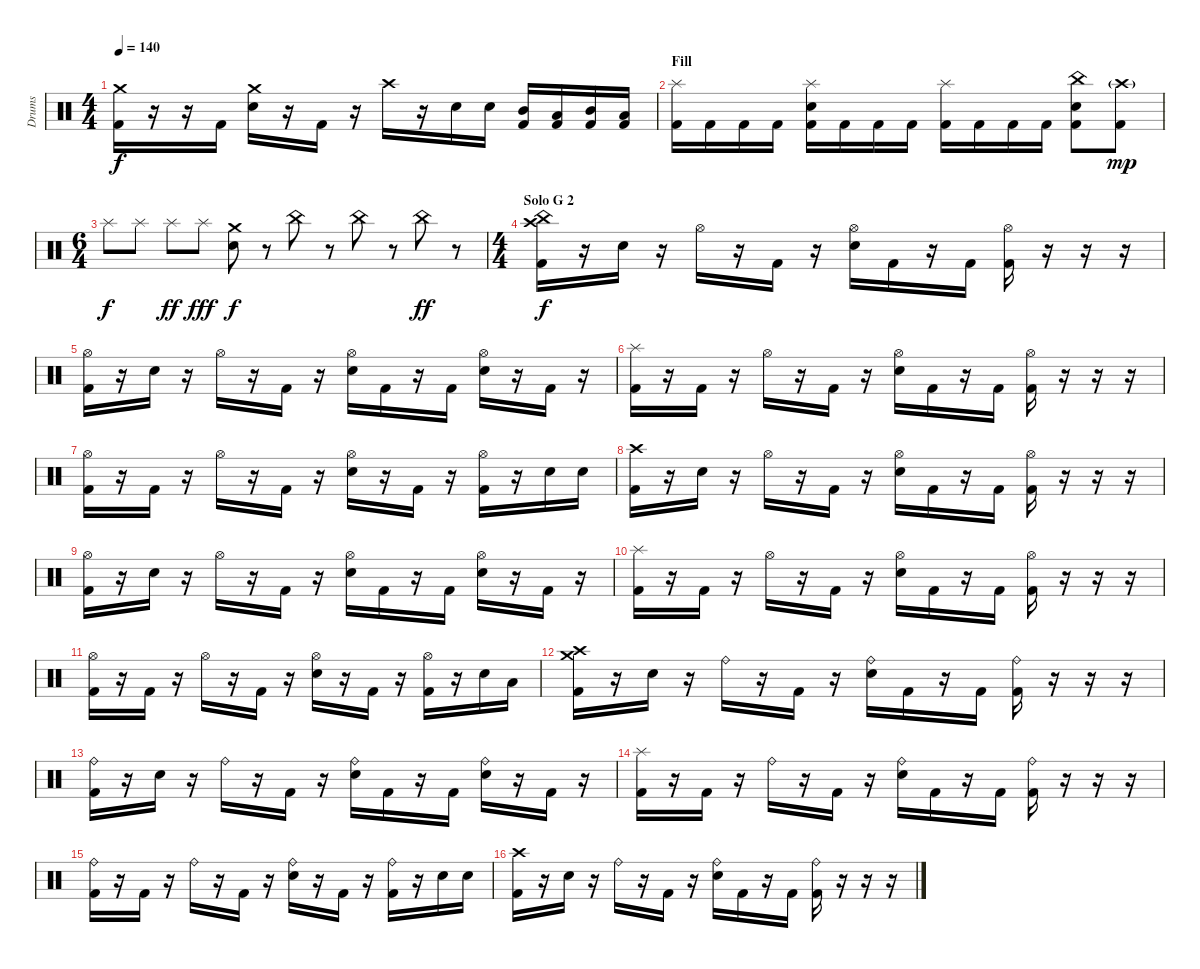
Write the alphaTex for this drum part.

\track ("Drums" "Drums") {instrument percussion}
\staff {score}
\articulation defaults
\ts (4 4)
\tempo 140
\clef neutral
\ks c
("Crash medium (hit)" "Kick (hit) 2").16{dy f} r.16 r.16 "Kick (hit) 2".16 ("Crash medium (hit)" "Electric Snare (hit)").16 r.16 "Kick (hit) 2".16 r.16 "Crash high (hit)".16 r.16 "Electric Snare (hit)".16 "Electric Snare (hit)".16 ("Mid Tom (hit)" "Kick (hit) 2").16 ("Low Tom (hit)" "Kick (hit) 2").16 ("Mid Tom (hit)" "Kick (hit) 2").16 ("Low Tom (hit)" "Kick (hit) 2").16 |
\section ("" "Fill")
("Splash (hit)" "Kick (hit) 2").16 "Kick (hit) 2".16 "Kick (hit) 2".16 "Kick (hit) 2".16 ("Splash (hit)" "Electric Snare (hit)" "Kick (hit) 2").16 "Kick (hit) 2".16 "Kick (hit) 2".16 "Kick (hit) 2".16 ("Splash (hit)" "Kick (hit) 2").16 "Kick (hit) 2".16 "Kick (hit) 2".16 "Kick (hit) 2".16 ("China (hit)" "Electric Snare (hit)" "Kick (hit) 2").8 ("Crash high (hit)"{g} "Kick (hit) 2").8{dy mp} |
\ts (6 4)
"Splash (hit)".8{dy f} "Splash (hit)".8 "Splash (hit)".8{dy ff} "Splash (hit)".8{dy fff} ("Crash medium (hit)" "Electric Snare (hit)").8{dy f} r.8 "China (hit)".8 r.8 "China (hit)".8 r.8 "China (hit)".8{dy ff} r.8 |
\ts (4 4)
\section ("" "Solo G 2")
("Crash high (hit)" "China (hit)" "Kick (hit) 2").16{dy f} r.16 "Electric Snare (hit)".16 r.16 "Hi-Hat (open)".16 r.16 "Kick (hit) 2".16 r.16 ("Hi-Hat (open)" "Electric Snare (hit)").16 "Kick (hit) 2".16 r.16 "Kick (hit) 2".16 ("Hi-Hat (open)" "Kick (hit) 2").16 r.16 r.16 r.16 |
("Hi-Hat (open)" "Kick (hit) 2").16 r.16 "Electric Snare (hit)".16 r.16 "Hi-Hat (open)".16 r.16 "Kick (hit) 2".16 r.16 ("Hi-Hat (open)" "Electric Snare (hit)").16 "Kick (hit) 2".16 r.16 "Kick (hit) 2".16 ("Hi-Hat (open)" "Electric Snare (hit)").16 r.16 "Kick (hit) 2".16 r.16 |
("Splash (hit)" "Kick (hit) 2").16 r.16 "Kick (hit) 2".16 r.16 "Hi-Hat (open)".16 r.16 "Kick (hit) 2".16 r.16 ("Hi-Hat (open)" "Electric Snare (hit)").16 "Kick (hit) 2".16 r.16 "Kick (hit) 2".16 ("Hi-Hat (open)" "Kick (hit) 2").16 r.16 r.16 r.16 |
("Hi-Hat (open)" "Kick (hit) 2").16 r.16 "Kick (hit) 2".16 r.16 "Hi-Hat (open)".16 r.16 "Kick (hit) 2".16 r.16 ("Hi-Hat (open)" "Electric Snare (hit)").16 r.16 "Kick (hit) 2".16 r.16 ("Hi-Hat (open)" "Kick (hit) 2").16 r.16 "Electric Snare (hit)".16 "Electric Snare (hit)".16 |
("Crash high (hit)" "Kick (hit) 2").16 r.16 "Electric Snare (hit)".16 r.16 "Hi-Hat (open)".16 r.16 "Kick (hit) 2".16 r.16 ("Hi-Hat (open)" "Electric Snare (hit)").16 "Kick (hit) 2".16 r.16 "Kick (hit) 2".16 ("Hi-Hat (open)" "Kick (hit) 2").16 r.16 r.16 r.16 |
("Hi-Hat (open)" "Kick (hit) 2").16 r.16 "Electric Snare (hit)".16 r.16 "Hi-Hat (open)".16 r.16 "Kick (hit) 2".16 r.16 ("Hi-Hat (open)" "Electric Snare (hit)").16 "Kick (hit) 2".16 r.16 "Kick (hit) 2".16 ("Hi-Hat (open)" "Electric Snare (hit)").16 r.16 "Kick (hit) 2".16 r.16 |
("Splash (hit)" "Kick (hit) 2").16 r.16 "Kick (hit) 2".16 r.16 "Hi-Hat (open)".16 r.16 "Kick (hit) 2".16 r.16 ("Hi-Hat (open)" "Electric Snare (hit)").16 "Kick (hit) 2".16 r.16 "Kick (hit) 2".16 ("Hi-Hat (open)" "Kick (hit) 2").16 r.16 r.16 r.16 |
("Hi-Hat (open)" "Kick (hit) 2").16 r.16 "Kick (hit) 2".16 r.16 "Hi-Hat (open)".16 r.16 "Kick (hit) 2".16 r.16 ("Hi-Hat (open)" "Electric Snare (hit)").16 r.16 "Kick (hit) 2".16 r.16 ("Hi-Hat (open)" "Kick (hit) 2").16 r.16 "Electric Snare (hit)".16 "Low Tom (hit)".16 |
("Crash high (hit)" "Crash medium (hit)" "Kick (hit) 2").16 r.16 "Electric Snare (hit)".16 r.16 "Ride (bell)".16 r.16 "Kick (hit) 2".16 r.16 ("Ride (bell)" "Electric Snare (hit)").16 "Kick (hit) 2".16 r.16 "Kick (hit) 2".16 ("Ride (bell)" "Kick (hit) 2").16 r.16 r.16 r.16 |
("Ride (bell)" "Kick (hit) 2").16 r.16 "Electric Snare (hit)".16 r.16 "Ride (bell)".16 r.16 "Kick (hit) 2".16 r.16 ("Ride (bell)" "Electric Snare (hit)").16 "Kick (hit) 2".16 r.16 "Kick (hit) 2".16 ("Ride (bell)" "Electric Snare (hit)").16 r.16 "Kick (hit) 2".16 r.16 |
("Splash (hit)" "Kick (hit) 2").16 r.16 "Kick (hit) 2".16 r.16 "Ride (bell)".16 r.16 "Kick (hit) 2".16 r.16 ("Ride (bell)" "Electric Snare (hit)").16 "Kick (hit) 2".16 r.16 "Kick (hit) 2".16 ("Ride (bell)" "Kick (hit) 2").16 r.16 r.16 r.16 |
("Ride (bell)" "Kick (hit) 2").16 r.16 "Kick (hit) 2".16 r.16 "Ride (bell)".16 r.16 "Kick (hit) 2".16 r.16 ("Ride (bell)" "Electric Snare (hit)").16 r.16 "Kick (hit) 2".16 r.16 ("Ride (bell)" "Kick (hit) 2").16 r.16 "Electric Snare (hit)".16 "Electric Snare (hit)".16 |
("Crash high (hit)" "Kick (hit) 2").16 r.16 "Electric Snare (hit)".16 r.16 "Ride (bell)".16 r.16 "Kick (hit) 2".16 r.16 ("Ride (bell)" "Electric Snare (hit)").16 "Kick (hit) 2".16 r.16 "Kick (hit) 2".16 ("Ride (bell)" "Kick (hit) 2").16 r.16 r.16 r.16
